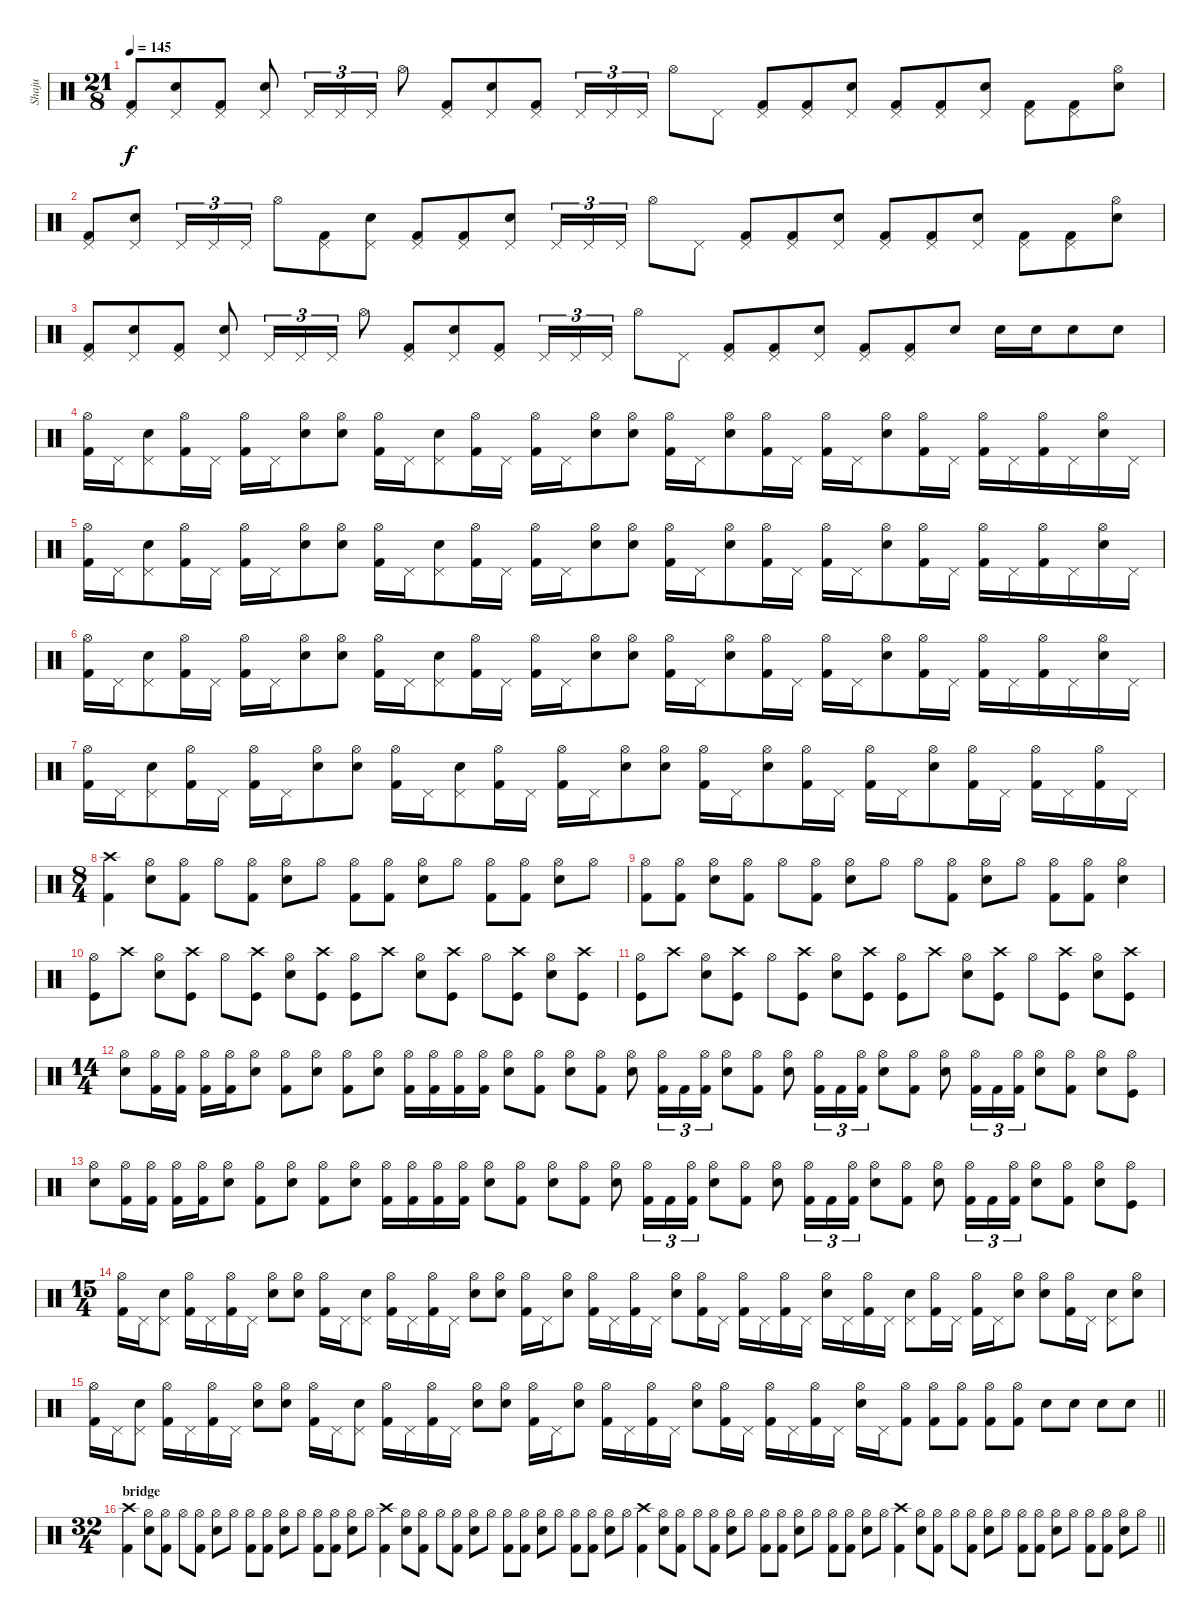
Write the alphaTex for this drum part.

\track ("Shaju" "Shaju") {instrument percussion}
\staff {score}
\articulation defaults
\ts (21 8)
\tempo 145
\clef neutral
\ks c
("Pedal Hi-Hat (hit)" "Kick (hit) 2").8{dy f} ("Pedal Hi-Hat (hit)" "Snare (hit) 2").8 ("Pedal Hi-Hat (hit)" "Kick (hit) 2").8 ("Pedal Hi-Hat (hit)" "Snare (hit) 2").8 "Pedal Hi-Hat (hit)".16{tu (3 2)} "Pedal Hi-Hat (hit)".16{tu (3 2)} "Pedal Hi-Hat (hit)".16{tu (3 2)} "Hi-Hat (open)".8 ("Pedal Hi-Hat (hit)" "Kick (hit) 2").8 ("Pedal Hi-Hat (hit)" "Snare (hit) 2").8 ("Pedal Hi-Hat (hit)" "Kick (hit) 2").8 "Pedal Hi-Hat (hit)".16{tu (3 2)} "Pedal Hi-Hat (hit)".16{tu (3 2)} "Pedal Hi-Hat (hit)".16{tu (3 2)} "Hi-Hat (open)".8 "Pedal Hi-Hat (hit)".8 ("Pedal Hi-Hat (hit)" "Kick (hit) 2").8 ("Pedal Hi-Hat (hit)" "Kick (hit) 2").8 ("Pedal Hi-Hat (hit)" "Snare (hit) 2").8 ("Pedal Hi-Hat (hit)" "Kick (hit) 2").8 ("Pedal Hi-Hat (hit)" "Kick (hit) 2").8 ("Pedal Hi-Hat (hit)" "Snare (hit) 2").8 ("Pedal Hi-Hat (hit)" "Kick (hit) 2").8 ("Pedal Hi-Hat (hit)" "Kick (hit) 2").8 ("Hi-Hat (open)" "Snare (hit) 2").8 |
("Pedal Hi-Hat (hit)" "Kick (hit) 2").8 ("Pedal Hi-Hat (hit)" "Snare (hit) 2").8 "Pedal Hi-Hat (hit)".16{tu (3 2)} "Pedal Hi-Hat (hit)".16{tu (3 2)} "Pedal Hi-Hat (hit)".16{tu (3 2)} "Hi-Hat (open)".8 ("Pedal Hi-Hat (hit)" "Kick (hit) 2").8 ("Pedal Hi-Hat (hit)" "Snare (hit) 2").8 ("Pedal Hi-Hat (hit)" "Kick (hit) 2").8 ("Pedal Hi-Hat (hit)" "Kick (hit) 2").8 ("Pedal Hi-Hat (hit)" "Snare (hit) 2").8 "Pedal Hi-Hat (hit)".16{tu (3 2)} "Pedal Hi-Hat (hit)".16{tu (3 2)} "Pedal Hi-Hat (hit)".16{tu (3 2)} "Hi-Hat (open)".8 "Pedal Hi-Hat (hit)".8 ("Pedal Hi-Hat (hit)" "Kick (hit) 2").8 ("Pedal Hi-Hat (hit)" "Kick (hit) 2").8 ("Pedal Hi-Hat (hit)" "Snare (hit) 2").8 ("Pedal Hi-Hat (hit)" "Kick (hit) 2").8 ("Pedal Hi-Hat (hit)" "Kick (hit) 2").8 ("Pedal Hi-Hat (hit)" "Snare (hit) 2").8 ("Pedal Hi-Hat (hit)" "Kick (hit) 2").8 ("Pedal Hi-Hat (hit)" "Kick (hit) 2").8 ("Hi-Hat (open)" "Snare (hit) 2").8 |
("Pedal Hi-Hat (hit)" "Kick (hit) 2").8 ("Pedal Hi-Hat (hit)" "Snare (hit) 2").8 ("Pedal Hi-Hat (hit)" "Kick (hit) 2").8 ("Pedal Hi-Hat (hit)" "Snare (hit) 2").8 "Pedal Hi-Hat (hit)".16{tu (3 2)} "Pedal Hi-Hat (hit)".16{tu (3 2)} "Pedal Hi-Hat (hit)".16{tu (3 2)} "Hi-Hat (open)".8 ("Pedal Hi-Hat (hit)" "Kick (hit) 2").8 ("Pedal Hi-Hat (hit)" "Snare (hit) 2").8 ("Pedal Hi-Hat (hit)" "Kick (hit) 2").8 "Pedal Hi-Hat (hit)".16{tu (3 2)} "Pedal Hi-Hat (hit)".16{tu (3 2)} "Pedal Hi-Hat (hit)".16{tu (3 2)} "Hi-Hat (open)".8 "Pedal Hi-Hat (hit)".8 ("Pedal Hi-Hat (hit)" "Kick (hit) 2").8 ("Pedal Hi-Hat (hit)" "Kick (hit) 2").8 ("Pedal Hi-Hat (hit)" "Snare (hit) 2").8 ("Pedal Hi-Hat (hit)" "Kick (hit) 2").8 ("Pedal Hi-Hat (hit)" "Kick (hit) 2").8 "Snare (hit) 2".8 "Snare (hit) 2".16 "Snare (hit) 2".16 "Snare (hit) 2".8 "Snare (hit) 2".8 |
("Hi-Hat (open)" "Kick (hit) 2").16 "Pedal Hi-Hat (hit)".16 ("Pedal Hi-Hat (hit)" "Snare (hit) 2").8 ("Hi-Hat (open)" "Kick (hit) 2").16 "Pedal Hi-Hat (hit)".16 ("Hi-Hat (open)" "Kick (hit) 2").16 "Pedal Hi-Hat (hit)".16 ("Hi-Hat (open)" "Snare (hit) 2").8 ("Hi-Hat (open)" "Snare (hit) 2").8 ("Hi-Hat (open)" "Kick (hit) 2").16 "Pedal Hi-Hat (hit)".16 ("Pedal Hi-Hat (hit)" "Snare (hit) 2").8 ("Hi-Hat (open)" "Kick (hit) 2").16 "Pedal Hi-Hat (hit)".16 ("Hi-Hat (open)" "Kick (hit) 2").16 "Pedal Hi-Hat (hit)".16 ("Hi-Hat (open)" "Snare (hit) 2").8 ("Hi-Hat (open)" "Snare (hit) 2").8 ("Hi-Hat (open)" "Kick (hit) 2").16 "Pedal Hi-Hat (hit)".16 ("Hi-Hat (open)" "Snare (hit) 2").8 ("Hi-Hat (open)" "Kick (hit) 2").16 "Pedal Hi-Hat (hit)".16 ("Hi-Hat (open)" "Kick (hit) 2").16 "Pedal Hi-Hat (hit)".16 ("Hi-Hat (open)" "Snare (hit) 2").8 ("Hi-Hat (open)" "Kick (hit) 2").16 "Pedal Hi-Hat (hit)".16 ("Hi-Hat (open)" "Kick (hit) 2").16 "Pedal Hi-Hat (hit)".16 ("Hi-Hat (open)" "Kick (hit) 2").16 "Pedal Hi-Hat (hit)".16 ("Hi-Hat (open)" "Snare (hit) 2").16 "Pedal Hi-Hat (hit)".16 |
("Hi-Hat (open)" "Kick (hit) 2").16 "Pedal Hi-Hat (hit)".16 ("Pedal Hi-Hat (hit)" "Snare (hit) 2").8 ("Hi-Hat (open)" "Kick (hit) 2").16 "Pedal Hi-Hat (hit)".16 ("Hi-Hat (open)" "Kick (hit) 2").16 "Pedal Hi-Hat (hit)".16 ("Hi-Hat (open)" "Snare (hit) 2").8 ("Hi-Hat (open)" "Snare (hit) 2").8 ("Hi-Hat (open)" "Kick (hit) 2").16 "Pedal Hi-Hat (hit)".16 ("Pedal Hi-Hat (hit)" "Snare (hit) 2").8 ("Hi-Hat (open)" "Kick (hit) 2").16 "Pedal Hi-Hat (hit)".16 ("Hi-Hat (open)" "Kick (hit) 2").16 "Pedal Hi-Hat (hit)".16 ("Hi-Hat (open)" "Snare (hit) 2").8 ("Hi-Hat (open)" "Snare (hit) 2").8 ("Hi-Hat (open)" "Kick (hit) 2").16 "Pedal Hi-Hat (hit)".16 ("Hi-Hat (open)" "Snare (hit) 2").8 ("Hi-Hat (open)" "Kick (hit) 2").16 "Pedal Hi-Hat (hit)".16 ("Hi-Hat (open)" "Kick (hit) 2").16 "Pedal Hi-Hat (hit)".16 ("Hi-Hat (open)" "Snare (hit) 2").8 ("Hi-Hat (open)" "Kick (hit) 2").16 "Pedal Hi-Hat (hit)".16 ("Hi-Hat (open)" "Kick (hit) 2").16 "Pedal Hi-Hat (hit)".16 ("Hi-Hat (open)" "Kick (hit) 2").16 "Pedal Hi-Hat (hit)".16 ("Hi-Hat (open)" "Snare (hit) 2").16 "Pedal Hi-Hat (hit)".16 |
("Hi-Hat (open)" "Kick (hit) 2").16 "Pedal Hi-Hat (hit)".16 ("Pedal Hi-Hat (hit)" "Snare (hit) 2").8 ("Hi-Hat (open)" "Kick (hit) 2").16 "Pedal Hi-Hat (hit)".16 ("Hi-Hat (open)" "Kick (hit) 2").16 "Pedal Hi-Hat (hit)".16 ("Hi-Hat (open)" "Snare (hit) 2").8 ("Hi-Hat (open)" "Snare (hit) 2").8 ("Hi-Hat (open)" "Kick (hit) 2").16 "Pedal Hi-Hat (hit)".16 ("Pedal Hi-Hat (hit)" "Snare (hit) 2").8 ("Hi-Hat (open)" "Kick (hit) 2").16 "Pedal Hi-Hat (hit)".16 ("Hi-Hat (open)" "Kick (hit) 2").16 "Pedal Hi-Hat (hit)".16 ("Hi-Hat (open)" "Snare (hit) 2").8 ("Hi-Hat (open)" "Snare (hit) 2").8 ("Hi-Hat (open)" "Kick (hit) 2").16 "Pedal Hi-Hat (hit)".16 ("Hi-Hat (open)" "Snare (hit) 2").8 ("Hi-Hat (open)" "Kick (hit) 2").16 "Pedal Hi-Hat (hit)".16 ("Hi-Hat (open)" "Kick (hit) 2").16 "Pedal Hi-Hat (hit)".16 ("Hi-Hat (open)" "Snare (hit) 2").8 ("Hi-Hat (open)" "Kick (hit) 2").16 "Pedal Hi-Hat (hit)".16 ("Hi-Hat (open)" "Kick (hit) 2").16 "Pedal Hi-Hat (hit)".16 ("Hi-Hat (open)" "Kick (hit) 2").16 "Pedal Hi-Hat (hit)".16 ("Hi-Hat (open)" "Snare (hit) 2").16 "Pedal Hi-Hat (hit)".16 |
("Hi-Hat (open)" "Kick (hit) 2").16 "Pedal Hi-Hat (hit)".16 ("Pedal Hi-Hat (hit)" "Snare (hit) 2").8 ("Hi-Hat (open)" "Kick (hit) 2").16 "Pedal Hi-Hat (hit)".16 ("Hi-Hat (open)" "Kick (hit) 2").16 "Pedal Hi-Hat (hit)".16 ("Hi-Hat (open)" "Snare (hit) 2").8 ("Hi-Hat (open)" "Snare (hit) 2").8 ("Hi-Hat (open)" "Kick (hit) 2").16 "Pedal Hi-Hat (hit)".16 ("Pedal Hi-Hat (hit)" "Snare (hit) 2").8 ("Hi-Hat (open)" "Kick (hit) 2").16 "Pedal Hi-Hat (hit)".16 ("Hi-Hat (open)" "Kick (hit) 2").16 "Pedal Hi-Hat (hit)".16 ("Hi-Hat (open)" "Snare (hit) 2").8 ("Hi-Hat (open)" "Snare (hit) 2").8 ("Hi-Hat (open)" "Kick (hit) 2").16 "Pedal Hi-Hat (hit)".16 ("Hi-Hat (open)" "Snare (hit) 2").8 ("Hi-Hat (open)" "Kick (hit) 2").16 "Pedal Hi-Hat (hit)".16 ("Hi-Hat (open)" "Kick (hit) 2").16 "Pedal Hi-Hat (hit)".16 ("Hi-Hat (open)" "Snare (hit) 2").8 ("Hi-Hat (open)" "Kick (hit) 2").16 "Pedal Hi-Hat (hit)".16 ("Hi-Hat (open)" "Kick (hit) 2").16 "Pedal Hi-Hat (hit)".16 ("Hi-Hat (open)" "Kick (hit) 2").16 "Pedal Hi-Hat (hit)".16 |
\ts (8 4)
("Crash high (hit)" "Kick (hit) 2").4 ("Hi-Hat (open)" "Snare (hit) 2").8 ("Hi-Hat (open)" "Kick (hit) 2").8 "Hi-Hat (open)".8 ("Hi-Hat (open)" "Kick (hit) 2").8 ("Hi-Hat (open)" "Snare (hit) 2").8 "Hi-Hat (open)".8 ("Hi-Hat (open)" "Kick (hit) 2").8 ("Hi-Hat (open)" "Kick (hit) 2").8 ("Hi-Hat (open)" "Snare (hit) 2").8 "Hi-Hat (open)".8 ("Hi-Hat (open)" "Kick (hit) 2").8 ("Hi-Hat (open)" "Kick (hit) 2").8 ("Hi-Hat (open)" "Snare (hit) 2").8 "Hi-Hat (open)".8 |
("Hi-Hat (open)" "Kick (hit) 2").8 ("Hi-Hat (open)" "Kick (hit) 2").8 ("Hi-Hat (open)" "Snare (hit) 2").8 ("Hi-Hat (open)" "Kick (hit) 2").8 "Hi-Hat (open)".8 ("Hi-Hat (open)" "Kick (hit) 2").8 ("Hi-Hat (open)" "Snare (hit) 2").8 "Hi-Hat (open)".8 "Hi-Hat (open)".8 ("Hi-Hat (open)" "Kick (hit) 2").8 ("Hi-Hat (open)" "Snare (hit) 2").8 "Hi-Hat (open)".8 ("Hi-Hat (open)" "Kick (hit) 2").8 ("Hi-Hat (open)" "Kick (hit) 2").8 ("Hi-Hat (open)" "Snare (hit) 2").4 |
("Hi-Hat (open)" "Kick (hit)").8 "Crash high (hit)".8 ("Hi-Hat (open)" "Snare (hit) 2").8 ("Crash high (hit)" "Kick (hit)").8 "Hi-Hat (open)".8 ("Crash high (hit)" "Kick (hit)").8 ("Hi-Hat (open)" "Snare (hit) 2").8 ("Crash high (hit)" "Kick (hit)").8 ("Hi-Hat (open)" "Kick (hit)").8 "Crash high (hit)".8 ("Hi-Hat (open)" "Snare (hit) 2").8 ("Crash high (hit)" "Kick (hit)").8 "Hi-Hat (open)".8 ("Crash high (hit)" "Kick (hit)").8 ("Hi-Hat (open)" "Snare (hit) 2").8 ("Crash high (hit)" "Kick (hit)").8 |
("Hi-Hat (open)" "Kick (hit)").8 "Crash high (hit)".8 ("Hi-Hat (open)" "Snare (hit) 2").8 ("Crash high (hit)" "Kick (hit)").8 "Hi-Hat (open)".8 ("Crash high (hit)" "Kick (hit)").8 ("Hi-Hat (open)" "Snare (hit) 2").8 ("Crash high (hit)" "Kick (hit)").8 ("Hi-Hat (open)" "Kick (hit)").8 "Crash high (hit)".8 ("Hi-Hat (open)" "Snare (hit) 2").8 ("Crash high (hit)" "Kick (hit)").8 "Hi-Hat (open)".8 ("Crash high (hit)" "Kick (hit)").8 ("Hi-Hat (open)" "Snare (hit) 2").8 ("Crash high (hit)" "Kick (hit)").8 |
\ts (14 4)
("Hi-Hat (open)" "Snare (hit) 2").8 ("Hi-Hat (open)" "Kick (hit) 2").16 ("Hi-Hat (open)" "Kick (hit) 2").16 ("Hi-Hat (open)" "Kick (hit) 2").16 ("Hi-Hat (open)" "Kick (hit) 2").16 ("Hi-Hat (open)" "Snare (hit) 2").8 ("Hi-Hat (open)" "Kick (hit) 2").8 ("Hi-Hat (open)" "Snare (hit) 2").8 ("Hi-Hat (open)" "Kick (hit) 2").8 ("Hi-Hat (open)" "Snare (hit) 2").8 ("Hi-Hat (open)" "Kick (hit) 2").16 ("Hi-Hat (open)" "Kick (hit) 2").16 ("Hi-Hat (open)" "Kick (hit) 2").16 ("Hi-Hat (open)" "Kick (hit) 2").16 ("Hi-Hat (open)" "Snare (hit) 2").8 ("Hi-Hat (open)" "Kick (hit) 2").8 ("Hi-Hat (open)" "Snare (hit) 2").8 ("Hi-Hat (open)" "Kick (hit) 2").8 ("Hi-Hat (open)" "Snare (hit) 2").8 ("Hi-Hat (open)" "Kick (hit) 2").16{tu (3 2)} "Kick (hit) 2".16{tu (3 2)} ("Hi-Hat (open)" "Kick (hit) 2").16{tu (3 2)} ("Snare (hit) 2" "Hi-Hat (open)").8 ("Hi-Hat (open)" "Kick (hit) 2").8 ("Hi-Hat (open)" "Snare (hit) 2").8 ("Hi-Hat (open)" "Kick (hit) 2").16{tu (3 2)} "Kick (hit) 2".16{tu (3 2)} ("Hi-Hat (open)" "Kick (hit) 2").16{tu (3 2)} ("Snare (hit) 2" "Hi-Hat (open)").8 ("Hi-Hat (open)" "Kick (hit) 2").8 ("Hi-Hat (open)" "Snare (hit) 2").8 ("Hi-Hat (open)" "Kick (hit) 2").16{tu (3 2)} "Kick (hit) 2".16{tu (3 2)} ("Hi-Hat (open)" "Kick (hit) 2").16{tu (3 2)} ("Hi-Hat (open)" "Snare (hit) 2").8 ("Hi-Hat (open)" "Kick (hit) 2").8 ("Hi-Hat (open)" "Snare (hit) 2").8 ("Hi-Hat (open)" "Kick (hit)").8 |
("Hi-Hat (open)" "Snare (hit) 2").8 ("Hi-Hat (open)" "Kick (hit) 2").16 ("Hi-Hat (open)" "Kick (hit) 2").16 ("Hi-Hat (open)" "Kick (hit) 2").16 ("Hi-Hat (open)" "Kick (hit) 2").16 ("Hi-Hat (open)" "Snare (hit) 2").8 ("Hi-Hat (open)" "Kick (hit) 2").8 ("Hi-Hat (open)" "Snare (hit) 2").8 ("Hi-Hat (open)" "Kick (hit) 2").8 ("Hi-Hat (open)" "Snare (hit) 2").8 ("Hi-Hat (open)" "Kick (hit) 2").16 ("Hi-Hat (open)" "Kick (hit) 2").16 ("Hi-Hat (open)" "Kick (hit) 2").16 ("Hi-Hat (open)" "Kick (hit) 2").16 ("Hi-Hat (open)" "Snare (hit) 2").8 ("Hi-Hat (open)" "Kick (hit) 2").8 ("Hi-Hat (open)" "Snare (hit) 2").8 ("Hi-Hat (open)" "Kick (hit) 2").8 ("Hi-Hat (open)" "Snare (hit) 2").8 ("Hi-Hat (open)" "Kick (hit) 2").16{tu (3 2)} "Kick (hit) 2".16{tu (3 2)} ("Hi-Hat (open)" "Kick (hit) 2").16{tu (3 2)} ("Snare (hit) 2" "Hi-Hat (open)").8 ("Hi-Hat (open)" "Kick (hit) 2").8 ("Hi-Hat (open)" "Snare (hit) 2").8 ("Hi-Hat (open)" "Kick (hit) 2").16{tu (3 2)} "Kick (hit) 2".16{tu (3 2)} ("Hi-Hat (open)" "Kick (hit) 2").16{tu (3 2)} ("Snare (hit) 2" "Hi-Hat (open)").8 ("Hi-Hat (open)" "Kick (hit) 2").8 ("Hi-Hat (open)" "Snare (hit) 2").8 ("Hi-Hat (open)" "Kick (hit) 2").16{tu (3 2)} "Kick (hit) 2".16{tu (3 2)} ("Hi-Hat (open)" "Kick (hit) 2").16{tu (3 2)} ("Hi-Hat (open)" "Snare (hit) 2").8 ("Hi-Hat (open)" "Kick (hit) 2").8 ("Hi-Hat (open)" "Snare (hit) 2").8 ("Hi-Hat (open)" "Kick (hit)").8 |
\ts (15 4)
("Hi-Hat (open)" "Kick (hit) 2").16 "Pedal Hi-Hat (hit)".16 ("Pedal Hi-Hat (hit)" "Snare (hit) 2").8 ("Hi-Hat (open)" "Kick (hit) 2").16 "Pedal Hi-Hat (hit)".16 ("Hi-Hat (open)" "Kick (hit) 2").16 "Pedal Hi-Hat (hit)".16 ("Hi-Hat (open)" "Snare (hit) 2").8 ("Hi-Hat (open)" "Snare (hit) 2").8 ("Hi-Hat (open)" "Kick (hit) 2").16 "Pedal Hi-Hat (hit)".16 ("Pedal Hi-Hat (hit)" "Snare (hit) 2").8 ("Hi-Hat (open)" "Kick (hit) 2").16 "Pedal Hi-Hat (hit)".16 ("Hi-Hat (open)" "Kick (hit) 2").16 "Pedal Hi-Hat (hit)".16 ("Hi-Hat (open)" "Snare (hit) 2").8 ("Hi-Hat (open)" "Snare (hit) 2").8 ("Hi-Hat (open)" "Kick (hit) 2").16 "Pedal Hi-Hat (hit)".16 ("Hi-Hat (open)" "Snare (hit) 2").8 ("Hi-Hat (open)" "Kick (hit) 2").16 "Pedal Hi-Hat (hit)".16 ("Hi-Hat (open)" "Kick (hit) 2").16 "Pedal Hi-Hat (hit)".16 ("Hi-Hat (open)" "Snare (hit) 2").8 ("Hi-Hat (open)" "Kick (hit) 2").16 "Pedal Hi-Hat (hit)".16 ("Hi-Hat (open)" "Kick (hit) 2").16 "Pedal Hi-Hat (hit)".16 ("Hi-Hat (open)" "Kick (hit) 2").16 "Pedal Hi-Hat (hit)".16 ("Hi-Hat (open)" "Snare (hit) 2").16 "Pedal Hi-Hat (hit)".16 ("Hi-Hat (open)" "Kick (hit) 2").16 "Pedal Hi-Hat (hit)".16 ("Pedal Hi-Hat (hit)" "Snare (hit) 2").8 ("Hi-Hat (open)" "Kick (hit) 2").16 "Pedal Hi-Hat (hit)".16 ("Hi-Hat (open)" "Kick (hit) 2").16 "Pedal Hi-Hat (hit)".16 ("Hi-Hat (open)" "Snare (hit) 2").8 ("Hi-Hat (open)" "Snare (hit) 2").8 ("Hi-Hat (open)" "Kick (hit) 2").16 "Pedal Hi-Hat (hit)".16 ("Pedal Hi-Hat (hit)" "Snare (hit) 2").8 ("Hi-Hat (open)" "Snare (hit) 2").8 |
\barLineRight lightlight
("Hi-Hat (open)" "Kick (hit) 2").16 "Pedal Hi-Hat (hit)".16 ("Pedal Hi-Hat (hit)" "Snare (hit) 2").8 ("Hi-Hat (open)" "Kick (hit) 2").16 "Pedal Hi-Hat (hit)".16 ("Hi-Hat (open)" "Kick (hit) 2").16 "Pedal Hi-Hat (hit)".16 ("Hi-Hat (open)" "Snare (hit) 2").8 ("Hi-Hat (open)" "Snare (hit) 2").8 ("Hi-Hat (open)" "Kick (hit) 2").16 "Pedal Hi-Hat (hit)".16 ("Pedal Hi-Hat (hit)" "Snare (hit) 2").8 ("Hi-Hat (open)" "Kick (hit) 2").16 "Pedal Hi-Hat (hit)".16 ("Hi-Hat (open)" "Kick (hit) 2").16 "Pedal Hi-Hat (hit)".16 ("Hi-Hat (open)" "Snare (hit) 2").8 ("Hi-Hat (open)" "Snare (hit) 2").8 ("Hi-Hat (open)" "Kick (hit) 2").16 "Pedal Hi-Hat (hit)".16 ("Hi-Hat (open)" "Snare (hit) 2").8 ("Hi-Hat (open)" "Kick (hit) 2").16 "Pedal Hi-Hat (hit)".16 ("Hi-Hat (open)" "Kick (hit) 2").16 "Pedal Hi-Hat (hit)".16 ("Hi-Hat (open)" "Snare (hit) 2").8 ("Hi-Hat (open)" "Kick (hit) 2").16 "Pedal Hi-Hat (hit)".16 ("Hi-Hat (open)" "Kick (hit) 2").16 "Pedal Hi-Hat (hit)".16 ("Hi-Hat (open)" "Kick (hit) 2").16 "Pedal Hi-Hat (hit)".16 ("Hi-Hat (open)" "Snare (hit) 2").16 "Pedal Hi-Hat (hit)".16 ("Hi-Hat (open)" "Kick (hit) 2").8 ("Hi-Hat (open)" "Kick (hit) 2").8 ("Hi-Hat (open)" "Kick (hit) 2").8 ("Hi-Hat (open)" "Kick (hit) 2").8 ("Hi-Hat (open)" "Kick (hit) 2").8 "Electric Snare (hit)".8 "Electric Snare (hit)".8 "Electric Snare (hit)".8 "Electric Snare (hit)".8 |
\ts (32 4)
\section ("" "bridge")
\barLineRight lightlight
("Crash high (hit)" "Kick (hit) 2").4 ("Hi-Hat (open)" "Snare (hit) 2").8 ("Hi-Hat (open)" "Kick (hit) 2").8 "Hi-Hat (open)".8 ("Hi-Hat (open)" "Kick (hit) 2").8 ("Hi-Hat (open)" "Snare (hit) 2").8 "Hi-Hat (open)".8 ("Hi-Hat (open)" "Kick (hit) 2").8 ("Hi-Hat (open)" "Kick (hit) 2").8 ("Hi-Hat (open)" "Snare (hit) 2").8 "Hi-Hat (open)".8 ("Hi-Hat (open)" "Kick (hit) 2").8 ("Hi-Hat (open)" "Kick (hit) 2").8 ("Hi-Hat (open)" "Snare (hit) 2").8 "Hi-Hat (open)".8 ("Crash high (hit)" "Kick (hit) 2").4 ("Hi-Hat (open)" "Snare (hit) 2").8 ("Hi-Hat (open)" "Kick (hit) 2").8 "Hi-Hat (open)".8 ("Hi-Hat (open)" "Kick (hit) 2").8 ("Hi-Hat (open)" "Snare (hit) 2").8 "Hi-Hat (open)".8 ("Hi-Hat (open)" "Kick (hit) 2").8 ("Hi-Hat (open)" "Kick (hit) 2").8 ("Hi-Hat (open)" "Snare (hit) 2").8 "Hi-Hat (open)".8 ("Hi-Hat (open)" "Kick (hit) 2").8 ("Hi-Hat (open)" "Kick (hit) 2").8 ("Hi-Hat (open)" "Snare (hit) 2").8 "Hi-Hat (open)".8 ("Crash high (hit)" "Kick (hit) 2").4 ("Hi-Hat (open)" "Snare (hit) 2").8 ("Hi-Hat (open)" "Kick (hit) 2").8 "Hi-Hat (open)".8 ("Hi-Hat (open)" "Kick (hit) 2").8 ("Hi-Hat (open)" "Snare (hit) 2").8 "Hi-Hat (open)".8 ("Hi-Hat (open)" "Kick (hit) 2").8 ("Hi-Hat (open)" "Kick (hit) 2").8 ("Hi-Hat (open)" "Snare (hit) 2").8 "Hi-Hat (open)".8 ("Hi-Hat (open)" "Kick (hit) 2").8 ("Hi-Hat (open)" "Kick (hit) 2").8 ("Hi-Hat (open)" "Snare (hit) 2").8 "Hi-Hat (open)".8 ("Crash high (hit)" "Kick (hit) 2").4 ("Hi-Hat (open)" "Snare (hit) 2").8 ("Hi-Hat (open)" "Kick (hit) 2").8 "Hi-Hat (open)".8 ("Hi-Hat (open)" "Kick (hit) 2").8 ("Hi-Hat (open)" "Snare (hit) 2").8 "Hi-Hat (open)".8 ("Hi-Hat (open)" "Kick (hit) 2").8 ("Hi-Hat (open)" "Kick (hit) 2").8 ("Hi-Hat (open)" "Snare (hit) 2").8 "Hi-Hat (open)".8 ("Hi-Hat (open)" "Kick (hit) 2").8 ("Hi-Hat (open)" "Kick (hit) 2").8 ("Hi-Hat (open)" "Snare (hit) 2").8 "Hi-Hat (open)".8
